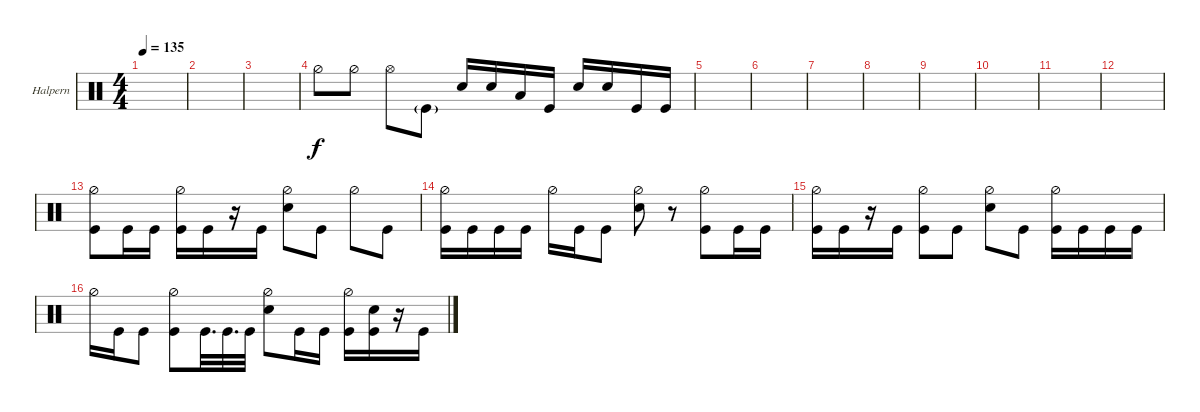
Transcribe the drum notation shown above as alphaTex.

\defaultSystemsLayout 4
\bracketExtendMode groupsimilarinstruments
\multiBarRest
\firstSystemTrackNameOrientation horizontal
\otherSystemsTrackNameOrientation horizontal
\track ("Matt Halpern" "Halpern") {instrument percussion}
\staff {score}
\articulation defaults
\ts (4 4)
\tempo 135
\clef neutral
\ks c
|
|
|
"Hi-Hat (half)".8 "Hi-Hat (half)".8 "Hi-Hat (open)".8 "Kick (hit)"{g}.8 "Snare (hit) 2".16 "Snare (hit) 2".16 "Low Tom (hit)".16 "Kick (hit)".16 "Snare (hit) 2".16 "Snare (hit) 2".16 "Kick (hit)".16 "Kick (hit)".16 |
|
|
|
|
|
|
|
|
("Kick (hit)" "Hi-Hat (half)").8 "Kick (hit)".16 "Kick (hit)".16 ("Kick (hit)" "Hi-Hat (half)").16 "Kick (hit)".16 r.16 "Kick (hit)".16 ("Hi-Hat (half)" "Snare (hit) 2").8 "Kick (hit)".8 "Hi-Hat (half)".8 "Kick (hit)".8 |
("Kick (hit)" "Hi-Hat (half)").16 "Kick (hit)".16 "Kick (hit)".16 "Kick (hit)".16 "Hi-Hat (half)".16 "Kick (hit)".16 "Kick (hit)".8 ("Hi-Hat (half)" "Snare (hit) 2").8 r.8 ("Kick (hit)" "Hi-Hat (half)").8 "Kick (hit)".16 "Kick (hit)".16 |
("Kick (hit)" "Hi-Hat (half)").16 "Kick (hit)".16 r.16 "Kick (hit)".16 ("Kick (hit)" "Hi-Hat (half)").8 "Kick (hit)".8 ("Hi-Hat (half)" "Snare (hit) 2").8 "Kick (hit)".8 ("Kick (hit)" "Hi-Hat (half)").16 "Kick (hit)".16 "Kick (hit)".16 "Kick (hit)".16 |
"Hi-Hat (half)".16 "Kick (hit)".16 "Kick (hit)".8 ("Kick (hit)" "Hi-Hat (half)").8 "Kick (hit)".32{d} "Kick (hit)".32{d} "Kick (hit)".32 ("Hi-Hat (half)" "Snare (hit) 2").8 "Kick (hit)".16 "Kick (hit)".16 ("Kick (hit)" "Hi-Hat (half)").16 ("Kick (hit)" "Snare (hit) 2").16 r.16 "Kick (hit)".16
